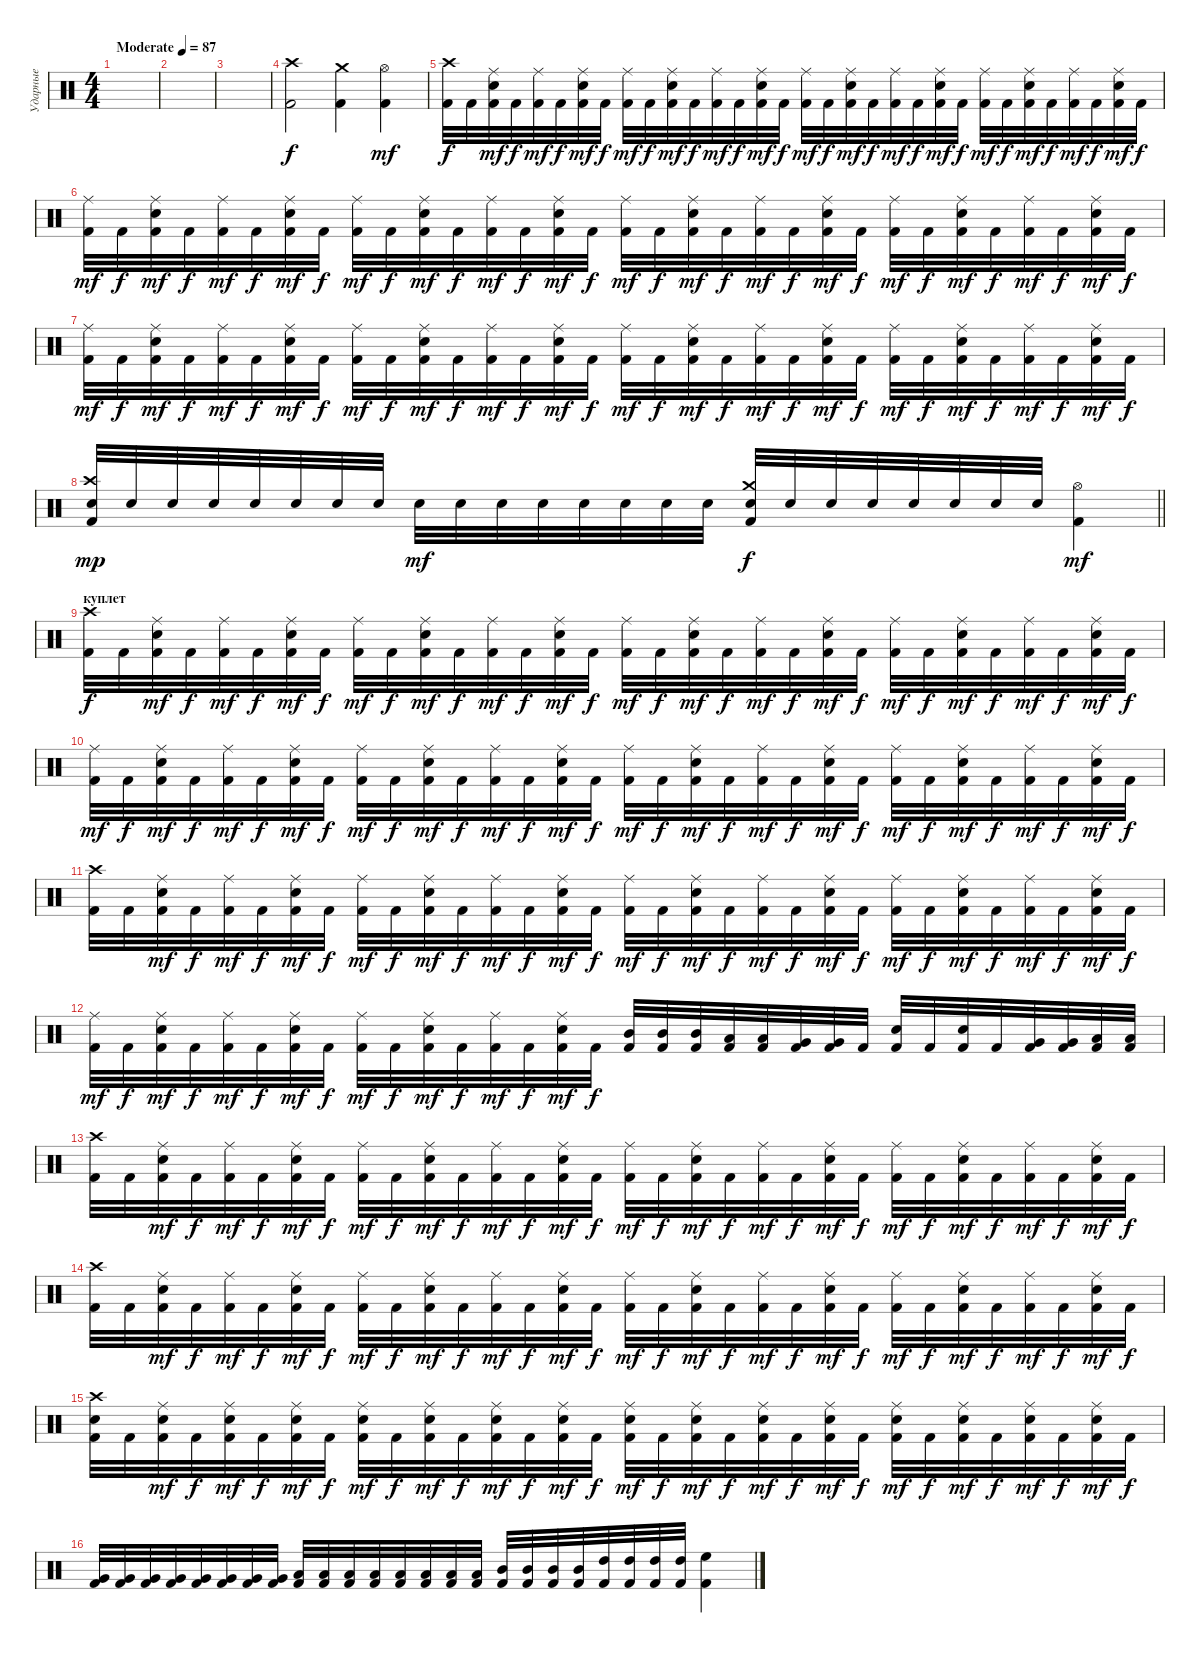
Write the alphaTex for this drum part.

\track ("Ударные" "Ударные") {instrument percussion}
\staff {score}
\articulation defaults
\ts (4 4)
\tempo (87 "Moderate")
\clef neutral
\ks c
|
|
|
("Kick (hit) 2" "Crash high (hit)").2 ("Kick (hit) 2" "Crash medium (hit)").4 ("Kick (hit) 2" "Hi-Hat (open)").4{dy mf} |
("Kick (hit) 2" "Crash high (hit)").32{dy f} "Kick (hit) 2".32 ("Kick (hit) 2" "Electric Snare (hit)" "Ride (middle)").32{dy mf} "Kick (hit) 2".32{dy f} ("Kick (hit) 2" "Ride (middle)").32{dy mf} "Kick (hit) 2".32{dy f} ("Kick (hit) 2" "Electric Snare (hit)" "Ride (middle)").32{dy mf} "Kick (hit) 2".32{dy f} ("Kick (hit) 2" "Ride (middle)").32{dy mf} "Kick (hit) 2".32{dy f} ("Kick (hit) 2" "Electric Snare (hit)" "Ride (middle)").32{dy mf} "Kick (hit) 2".32{dy f} ("Kick (hit) 2" "Ride (middle)").32{dy mf} "Kick (hit) 2".32{dy f} ("Kick (hit) 2" "Electric Snare (hit)" "Ride (middle)").32{dy mf} "Kick (hit) 2".32{dy f} ("Kick (hit) 2" "Ride (middle)").32{dy mf} "Kick (hit) 2".32{dy f} ("Kick (hit) 2" "Electric Snare (hit)" "Ride (middle)").32{dy mf} "Kick (hit) 2".32{dy f} ("Kick (hit) 2" "Ride (middle)").32{dy mf} "Kick (hit) 2".32{dy f} ("Kick (hit) 2" "Electric Snare (hit)" "Ride (middle)").32{dy mf} "Kick (hit) 2".32{dy f} ("Kick (hit) 2" "Ride (middle)").32{dy mf} "Kick (hit) 2".32{dy f} ("Kick (hit) 2" "Electric Snare (hit)" "Ride (middle)").32{dy mf} "Kick (hit) 2".32{dy f} ("Kick (hit) 2" "Ride (middle)").32{dy mf} "Kick (hit) 2".32{dy f} ("Kick (hit) 2" "Electric Snare (hit)" "Ride (middle)").32{dy mf} "Kick (hit) 2".32{dy f} |
("Kick (hit) 2" "Ride (middle)").32{dy mf} "Kick (hit) 2".32{dy f} ("Kick (hit) 2" "Electric Snare (hit)" "Ride (middle)").32{dy mf} "Kick (hit) 2".32{dy f} ("Kick (hit) 2" "Ride (middle)").32{dy mf} "Kick (hit) 2".32{dy f} ("Kick (hit) 2" "Electric Snare (hit)" "Ride (middle)").32{dy mf} "Kick (hit) 2".32{dy f} ("Kick (hit) 2" "Ride (middle)").32{dy mf} "Kick (hit) 2".32{dy f} ("Kick (hit) 2" "Electric Snare (hit)" "Ride (middle)").32{dy mf} "Kick (hit) 2".32{dy f} ("Kick (hit) 2" "Ride (middle)").32{dy mf} "Kick (hit) 2".32{dy f} ("Kick (hit) 2" "Electric Snare (hit)" "Ride (middle)").32{dy mf} "Kick (hit) 2".32{dy f} ("Kick (hit) 2" "Ride (middle)").32{dy mf} "Kick (hit) 2".32{dy f} ("Kick (hit) 2" "Electric Snare (hit)" "Ride (middle)").32{dy mf} "Kick (hit) 2".32{dy f} ("Kick (hit) 2" "Ride (middle)").32{dy mf} "Kick (hit) 2".32{dy f} ("Kick (hit) 2" "Electric Snare (hit)" "Ride (middle)").32{dy mf} "Kick (hit) 2".32{dy f} ("Kick (hit) 2" "Ride (middle)").32{dy mf} "Kick (hit) 2".32{dy f} ("Kick (hit) 2" "Electric Snare (hit)" "Ride (middle)").32{dy mf} "Kick (hit) 2".32{dy f} ("Kick (hit) 2" "Ride (middle)").32{dy mf} "Kick (hit) 2".32{dy f} ("Kick (hit) 2" "Electric Snare (hit)" "Ride (middle)").32{dy mf} "Kick (hit) 2".32{dy f} |
("Kick (hit) 2" "Ride (middle)").32{dy mf} "Kick (hit) 2".32{dy f} ("Kick (hit) 2" "Electric Snare (hit)" "Ride (middle)").32{dy mf} "Kick (hit) 2".32{dy f} ("Kick (hit) 2" "Ride (middle)").32{dy mf} "Kick (hit) 2".32{dy f} ("Kick (hit) 2" "Electric Snare (hit)" "Ride (middle)").32{dy mf} "Kick (hit) 2".32{dy f} ("Kick (hit) 2" "Ride (middle)").32{dy mf} "Kick (hit) 2".32{dy f} ("Kick (hit) 2" "Electric Snare (hit)" "Ride (middle)").32{dy mf} "Kick (hit) 2".32{dy f} ("Kick (hit) 2" "Ride (middle)").32{dy mf} "Kick (hit) 2".32{dy f} ("Kick (hit) 2" "Electric Snare (hit)" "Ride (middle)").32{dy mf} "Kick (hit) 2".32{dy f} ("Kick (hit) 2" "Ride (middle)").32{dy mf} "Kick (hit) 2".32{dy f} ("Kick (hit) 2" "Electric Snare (hit)" "Ride (middle)").32{dy mf} "Kick (hit) 2".32{dy f} ("Kick (hit) 2" "Ride (middle)").32{dy mf} "Kick (hit) 2".32{dy f} ("Kick (hit) 2" "Electric Snare (hit)" "Ride (middle)").32{dy mf} "Kick (hit) 2".32{dy f} ("Kick (hit) 2" "Ride (middle)").32{dy mf} "Kick (hit) 2".32{dy f} ("Kick (hit) 2" "Electric Snare (hit)" "Ride (middle)").32{dy mf} "Kick (hit) 2".32{dy f} ("Kick (hit) 2" "Ride (middle)").32{dy mf} "Kick (hit) 2".32{dy f} ("Kick (hit) 2" "Electric Snare (hit)" "Ride (middle)").32{dy mf} "Kick (hit) 2".32{dy f} |
\barLineRight lightlight
("Kick (hit) 2" "Electric Snare (hit)" "Crash high (hit)").32{dy mp} "Electric Snare (hit)".32 "Electric Snare (hit)".32 "Electric Snare (hit)".32 "Electric Snare (hit)".32 "Electric Snare (hit)".32 "Electric Snare (hit)".32 "Electric Snare (hit)".32 "Electric Snare (hit)".32{dy mf} "Electric Snare (hit)".32 "Electric Snare (hit)".32 "Electric Snare (hit)".32 "Electric Snare (hit)".32 "Electric Snare (hit)".32 "Electric Snare (hit)".32 "Electric Snare (hit)".32 ("Kick (hit) 2" "Electric Snare (hit)" "Crash medium (hit)").32{dy f} "Electric Snare (hit)".32 "Electric Snare (hit)".32 "Electric Snare (hit)".32 "Electric Snare (hit)".32 "Electric Snare (hit)".32 "Electric Snare (hit)".32 "Electric Snare (hit)".32 ("Kick (hit) 2" "Hi-Hat (open)").4{dy mf} |
\section ("" "куплет")
("Kick (hit) 2" "Crash high (hit)").32{dy f} "Kick (hit) 2".32 ("Kick (hit) 2" "Electric Snare (hit)" "Ride (middle)").32{dy mf} "Kick (hit) 2".32{dy f} ("Kick (hit) 2" "Ride (middle)").32{dy mf} "Kick (hit) 2".32{dy f} ("Kick (hit) 2" "Electric Snare (hit)" "Ride (middle)").32{dy mf} "Kick (hit) 2".32{dy f} ("Kick (hit) 2" "Ride (middle)").32{dy mf} "Kick (hit) 2".32{dy f} ("Kick (hit) 2" "Electric Snare (hit)" "Ride (middle)").32{dy mf} "Kick (hit) 2".32{dy f} ("Kick (hit) 2" "Ride (middle)").32{dy mf} "Kick (hit) 2".32{dy f} ("Kick (hit) 2" "Electric Snare (hit)" "Ride (middle)").32{dy mf} "Kick (hit) 2".32{dy f} ("Kick (hit) 2" "Ride (middle)").32{dy mf} "Kick (hit) 2".32{dy f} ("Kick (hit) 2" "Electric Snare (hit)" "Ride (middle)").32{dy mf} "Kick (hit) 2".32{dy f} ("Kick (hit) 2" "Ride (middle)").32{dy mf} "Kick (hit) 2".32{dy f} ("Kick (hit) 2" "Electric Snare (hit)" "Ride (middle)").32{dy mf} "Kick (hit) 2".32{dy f} ("Kick (hit) 2" "Ride (middle)").32{dy mf} "Kick (hit) 2".32{dy f} ("Kick (hit) 2" "Electric Snare (hit)" "Ride (middle)").32{dy mf} "Kick (hit) 2".32{dy f} ("Kick (hit) 2" "Ride (middle)").32{dy mf} "Kick (hit) 2".32{dy f} ("Kick (hit) 2" "Electric Snare (hit)" "Ride (middle)").32{dy mf} "Kick (hit) 2".32{dy f} |
("Kick (hit) 2" "Ride (middle)").32{dy mf} "Kick (hit) 2".32{dy f} ("Kick (hit) 2" "Electric Snare (hit)" "Ride (middle)").32{dy mf} "Kick (hit) 2".32{dy f} ("Kick (hit) 2" "Ride (middle)").32{dy mf} "Kick (hit) 2".32{dy f} ("Kick (hit) 2" "Electric Snare (hit)" "Ride (middle)").32{dy mf} "Kick (hit) 2".32{dy f} ("Kick (hit) 2" "Ride (middle)").32{dy mf} "Kick (hit) 2".32{dy f} ("Kick (hit) 2" "Electric Snare (hit)" "Ride (middle)").32{dy mf} "Kick (hit) 2".32{dy f} ("Kick (hit) 2" "Ride (middle)").32{dy mf} "Kick (hit) 2".32{dy f} ("Kick (hit) 2" "Electric Snare (hit)" "Ride (middle)").32{dy mf} "Kick (hit) 2".32{dy f} ("Kick (hit) 2" "Ride (middle)").32{dy mf} "Kick (hit) 2".32{dy f} ("Kick (hit) 2" "Electric Snare (hit)" "Ride (middle)").32{dy mf} "Kick (hit) 2".32{dy f} ("Kick (hit) 2" "Ride (middle)").32{dy mf} "Kick (hit) 2".32{dy f} ("Kick (hit) 2" "Electric Snare (hit)" "Ride (middle)").32{dy mf} "Kick (hit) 2".32{dy f} ("Kick (hit) 2" "Ride (middle)").32{dy mf} "Kick (hit) 2".32{dy f} ("Kick (hit) 2" "Electric Snare (hit)" "Ride (middle)").32{dy mf} "Kick (hit) 2".32{dy f} ("Kick (hit) 2" "Ride (middle)").32{dy mf} "Kick (hit) 2".32{dy f} ("Kick (hit) 2" "Electric Snare (hit)" "Ride (middle)").32{dy mf} "Kick (hit) 2".32{dy f} |
("Kick (hit) 2" "Crash high (hit)").32 "Kick (hit) 2".32 ("Kick (hit) 2" "Electric Snare (hit)" "Ride (middle)").32{dy mf} "Kick (hit) 2".32{dy f} ("Kick (hit) 2" "Ride (middle)").32{dy mf} "Kick (hit) 2".32{dy f} ("Kick (hit) 2" "Electric Snare (hit)" "Ride (middle)").32{dy mf} "Kick (hit) 2".32{dy f} ("Kick (hit) 2" "Ride (middle)").32{dy mf} "Kick (hit) 2".32{dy f} ("Kick (hit) 2" "Electric Snare (hit)" "Ride (middle)").32{dy mf} "Kick (hit) 2".32{dy f} ("Kick (hit) 2" "Ride (middle)").32{dy mf} "Kick (hit) 2".32{dy f} ("Kick (hit) 2" "Electric Snare (hit)" "Ride (middle)").32{dy mf} "Kick (hit) 2".32{dy f} ("Kick (hit) 2" "Ride (middle)").32{dy mf} "Kick (hit) 2".32{dy f} ("Kick (hit) 2" "Electric Snare (hit)" "Ride (middle)").32{dy mf} "Kick (hit) 2".32{dy f} ("Kick (hit) 2" "Ride (middle)").32{dy mf} "Kick (hit) 2".32{dy f} ("Kick (hit) 2" "Electric Snare (hit)" "Ride (middle)").32{dy mf} "Kick (hit) 2".32{dy f} ("Kick (hit) 2" "Ride (middle)").32{dy mf} "Kick (hit) 2".32{dy f} ("Kick (hit) 2" "Electric Snare (hit)" "Ride (middle)").32{dy mf} "Kick (hit) 2".32{dy f} ("Kick (hit) 2" "Ride (middle)").32{dy mf} "Kick (hit) 2".32{dy f} ("Kick (hit) 2" "Electric Snare (hit)" "Ride (middle)").32{dy mf} "Kick (hit) 2".32{dy f} |
("Kick (hit) 2" "Ride (middle)").32{dy mf} "Kick (hit) 2".32{dy f} ("Kick (hit) 2" "Electric Snare (hit)" "Ride (middle)").32{dy mf} "Kick (hit) 2".32{dy f} ("Kick (hit) 2" "Ride (middle)").32{dy mf} "Kick (hit) 2".32{dy f} ("Kick (hit) 2" "Electric Snare (hit)" "Ride (middle)").32{dy mf} "Kick (hit) 2".32{dy f} ("Kick (hit) 2" "Ride (middle)").32{dy mf} "Kick (hit) 2".32{dy f} ("Kick (hit) 2" "Electric Snare (hit)" "Ride (middle)").32{dy mf} "Kick (hit) 2".32{dy f} ("Kick (hit) 2" "Ride (middle)").32{dy mf} "Kick (hit) 2".32{dy f} ("Kick (hit) 2" "Electric Snare (hit)" "Ride (middle)").32{dy mf} "Kick (hit) 2".32{dy f} ("Kick (hit) 2" "Mid Tom (hit)").32 ("Kick (hit) 2" "Mid Tom (hit)").32 ("Kick (hit) 2" "Mid Tom (hit)").32 ("Kick (hit) 2" "Low Tom (hit)").32 ("Kick (hit) 2" "Low Tom (hit)").32 ("Kick (hit) 2" "Very Low Tom (hit)").32 ("Kick (hit) 2" "Very Low Tom (hit)").32 "Kick (hit) 2".32 ("Kick (hit) 2" "Electric Snare (hit)").32 "Kick (hit) 2".32 ("Kick (hit) 2" "Electric Snare (hit)").32 "Kick (hit) 2".32 ("Kick (hit) 2" "Very Low Tom (hit)").32 ("Kick (hit) 2" "Very Low Tom (hit)").32 ("Kick (hit) 2" "Low Floor Tom (hit)").32 ("Kick (hit) 2" "Low Floor Tom (hit)").32 |
("Kick (hit) 2" "Crash high (hit)").32 "Kick (hit) 2".32 ("Kick (hit) 2" "Electric Snare (hit)" "Ride (middle)").32{dy mf} "Kick (hit) 2".32{dy f} ("Kick (hit) 2" "Ride (middle)").32{dy mf} "Kick (hit) 2".32{dy f} ("Kick (hit) 2" "Electric Snare (hit)" "Ride (middle)").32{dy mf} "Kick (hit) 2".32{dy f} ("Kick (hit) 2" "Ride (middle)").32{dy mf} "Kick (hit) 2".32{dy f} ("Kick (hit) 2" "Electric Snare (hit)" "Ride (middle)").32{dy mf} "Kick (hit) 2".32{dy f} ("Kick (hit) 2" "Ride (middle)").32{dy mf} "Kick (hit) 2".32{dy f} ("Kick (hit) 2" "Electric Snare (hit)" "Ride (middle)").32{dy mf} "Kick (hit) 2".32{dy f} ("Kick (hit) 2" "Ride (middle)").32{dy mf} "Kick (hit) 2".32{dy f} ("Kick (hit) 2" "Electric Snare (hit)" "Ride (middle)").32{dy mf} "Kick (hit) 2".32{dy f} ("Kick (hit) 2" "Ride (middle)").32{dy mf} "Kick (hit) 2".32{dy f} ("Kick (hit) 2" "Electric Snare (hit)" "Ride (middle)").32{dy mf} "Kick (hit) 2".32{dy f} ("Kick (hit) 2" "Ride (middle)").32{dy mf} "Kick (hit) 2".32{dy f} ("Kick (hit) 2" "Electric Snare (hit)" "Ride (middle)").32{dy mf} "Kick (hit) 2".32{dy f} ("Kick (hit) 2" "Ride (middle)").32{dy mf} "Kick (hit) 2".32{dy f} ("Kick (hit) 2" "Electric Snare (hit)" "Ride (middle)").32{dy mf} "Kick (hit) 2".32{dy f} |
("Kick (hit) 2" "Crash high (hit)").32 "Kick (hit) 2".32 ("Kick (hit) 2" "Electric Snare (hit)" "Ride (middle)").32{dy mf} "Kick (hit) 2".32{dy f} ("Kick (hit) 2" "Ride (middle)").32{dy mf} "Kick (hit) 2".32{dy f} ("Kick (hit) 2" "Electric Snare (hit)" "Ride (middle)").32{dy mf} "Kick (hit) 2".32{dy f} ("Kick (hit) 2" "Ride (middle)").32{dy mf} "Kick (hit) 2".32{dy f} ("Kick (hit) 2" "Electric Snare (hit)" "Ride (middle)").32{dy mf} "Kick (hit) 2".32{dy f} ("Kick (hit) 2" "Ride (middle)").32{dy mf} "Kick (hit) 2".32{dy f} ("Kick (hit) 2" "Electric Snare (hit)" "Ride (middle)").32{dy mf} "Kick (hit) 2".32{dy f} ("Kick (hit) 2" "Ride (middle)").32{dy mf} "Kick (hit) 2".32{dy f} ("Kick (hit) 2" "Electric Snare (hit)" "Ride (middle)").32{dy mf} "Kick (hit) 2".32{dy f} ("Kick (hit) 2" "Ride (middle)").32{dy mf} "Kick (hit) 2".32{dy f} ("Kick (hit) 2" "Electric Snare (hit)" "Ride (middle)").32{dy mf} "Kick (hit) 2".32{dy f} ("Kick (hit) 2" "Ride (middle)").32{dy mf} "Kick (hit) 2".32{dy f} ("Kick (hit) 2" "Electric Snare (hit)" "Ride (middle)").32{dy mf} "Kick (hit) 2".32{dy f} ("Kick (hit) 2" "Ride (middle)").32{dy mf} "Kick (hit) 2".32{dy f} ("Kick (hit) 2" "Electric Snare (hit)" "Ride (middle)").32{dy mf} "Kick (hit) 2".32{dy f} |
("Kick (hit) 2" "Electric Snare (hit)" "Crash high (hit)").32 "Kick (hit) 2".32 ("Kick (hit) 2" "Electric Snare (hit)" "Ride (middle)").32{dy mf} "Kick (hit) 2".32{dy f} ("Kick (hit) 2" "Electric Snare (hit)" "Ride (middle)").32{dy mf} "Kick (hit) 2".32{dy f} ("Kick (hit) 2" "Electric Snare (hit)" "Ride (middle)").32{dy mf} "Kick (hit) 2".32{dy f} ("Kick (hit) 2" "Electric Snare (hit)" "Ride (middle)").32{dy mf} "Kick (hit) 2".32{dy f} ("Kick (hit) 2" "Electric Snare (hit)" "Ride (middle)").32{dy mf} "Kick (hit) 2".32{dy f} ("Kick (hit) 2" "Electric Snare (hit)" "Ride (middle)").32{dy mf} "Kick (hit) 2".32{dy f} ("Kick (hit) 2" "Electric Snare (hit)" "Ride (middle)").32{dy mf} "Kick (hit) 2".32{dy f} ("Kick (hit) 2" "Electric Snare (hit)" "Ride (middle)").32{dy mf} "Kick (hit) 2".32{dy f} ("Kick (hit) 2" "Electric Snare (hit)" "Ride (middle)").32{dy mf} "Kick (hit) 2".32{dy f} ("Kick (hit) 2" "Electric Snare (hit)" "Ride (middle)").32{dy mf} "Kick (hit) 2".32{dy f} ("Kick (hit) 2" "Electric Snare (hit)" "Ride (middle)").32{dy mf} "Kick (hit) 2".32{dy f} ("Kick (hit) 2" "Electric Snare (hit)" "Ride (middle)").32{dy mf} "Kick (hit) 2".32{dy f} ("Kick (hit) 2" "Electric Snare (hit)" "Ride (middle)").32{dy mf} "Kick (hit) 2".32{dy f} ("Kick (hit) 2" "Electric Snare (hit)" "Ride (middle)").32{dy mf} "Kick (hit) 2".32{dy f} ("Kick (hit) 2" "Electric Snare (hit)" "Ride (middle)").32{dy mf} "Kick (hit) 2".32{dy f} |
("Kick (hit) 2" "Very Low Tom (hit)").32 ("Kick (hit) 2" "Very Low Tom (hit)").32 ("Kick (hit) 2" "Very Low Tom (hit)").32 ("Kick (hit) 2" "Very Low Tom (hit)").32 ("Kick (hit) 2" "Very Low Tom (hit)").32 ("Kick (hit) 2" "Very Low Tom (hit)").32 ("Kick (hit) 2" "Very Low Tom (hit)").32 ("Kick (hit) 2" "Very Low Tom (hit)").32 ("Kick (hit) 2" "Low Tom (hit)").32 ("Kick (hit) 2" "Low Tom (hit)").32 ("Kick (hit) 2" "Low Tom (hit)").32 ("Kick (hit) 2" "Low Tom (hit)").32 ("Kick (hit) 2" "Low Tom (hit)").32 ("Kick (hit) 2" "Low Tom (hit)").32 ("Kick (hit) 2" "Low Tom (hit)").32 ("Kick (hit) 2" "Low Tom (hit)").32 ("Kick (hit) 2" "Mid Tom (hit)").32 ("Kick (hit) 2" "Mid Tom (hit)").32 ("Kick (hit) 2" "Mid Tom (hit)").32 ("Kick (hit) 2" "Mid Tom (hit)").32 ("Kick (hit) 2" "High Tom (hit)").32 ("Kick (hit) 2" "High Tom (hit)").32 ("Kick (hit) 2" "High Tom (hit)").32 ("Kick (hit) 2" "High Tom (hit)").32 ("Kick (hit) 2" "High Floor Tom (hit)").4
